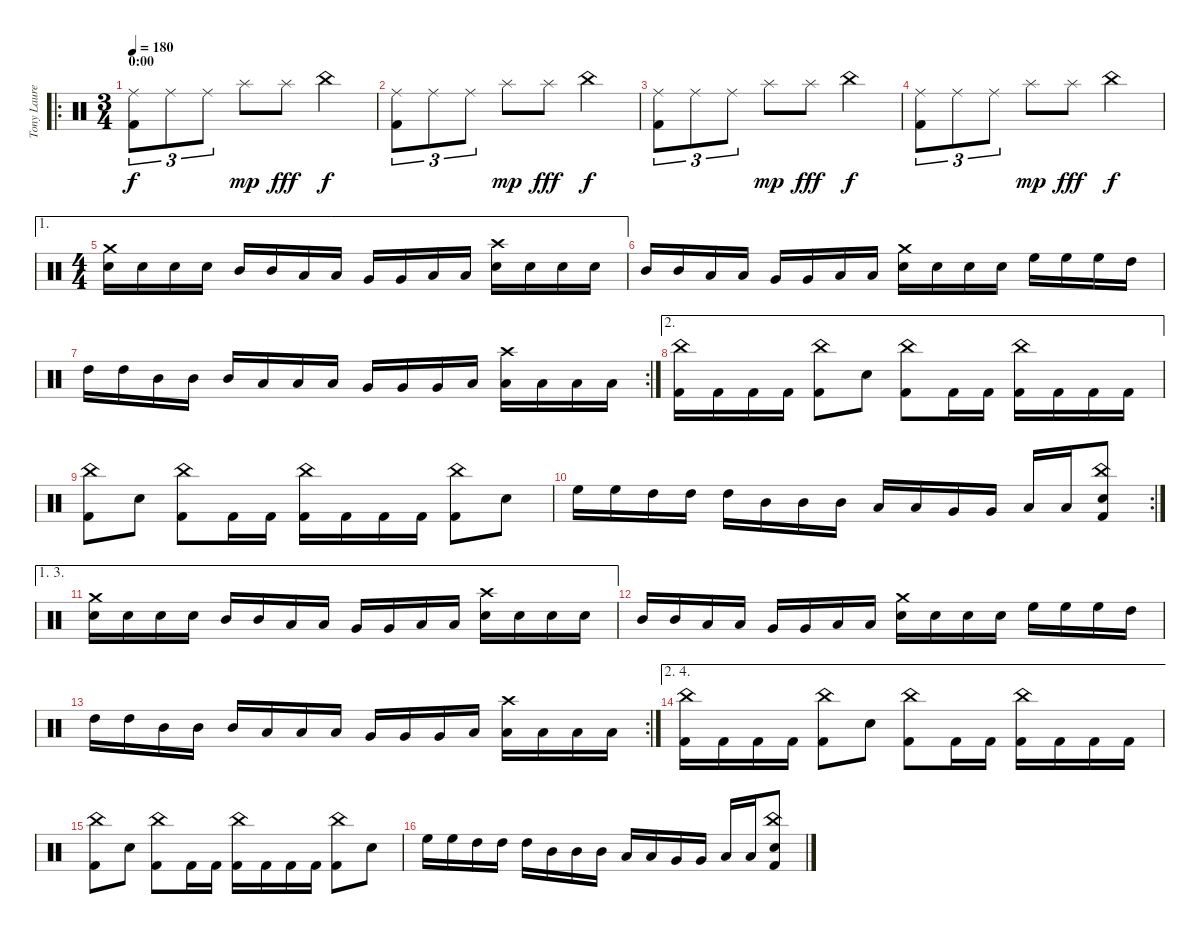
\track ("Tony Laureano" "Tony Laure") {instrument percussion}
\staff {score}
\articulation defaults
\ro
\ts (3 4)
\section ("" "0:00")
\tempo 180
\clef neutral
\ks c
("Ride (middle)" "Kick (hit) 2").8{tu (3 2) dy f} "Ride (middle)".8{tu (3 2)} "Ride (middle)".8{tu (3 2)} "Splash (hit)".8{dy mp} "Splash (hit)".8{dy fff} "China (hit)".4{dy f} |
("Ride (middle)" "Kick (hit) 2").8{tu (3 2)} "Ride (middle)".8{tu (3 2)} "Ride (middle)".8{tu (3 2)} "Splash (hit)".8{dy mp} "Splash (hit)".8{dy fff} "China (hit)".4{dy f} |
("Ride (middle)" "Kick (hit) 2").8{tu (3 2)} "Ride (middle)".8{tu (3 2)} "Ride (middle)".8{tu (3 2)} "Splash (hit)".8{dy mp} "Splash (hit)".8{dy fff} "China (hit)".4{dy f} |
("Ride (middle)" "Kick (hit) 2").8{tu (3 2)} "Ride (middle)".8{tu (3 2)} "Ride (middle)".8{tu (3 2)} "Splash (hit)".8{dy mp} "Splash (hit)".8{dy fff} "China (hit)".4{dy f} |
\ae 1
\ts (4 4)
("Crash medium (hit)" "Electric Snare (hit)").16 "Electric Snare (hit)".16 "Electric Snare (hit)".16 "Electric Snare (hit)".16 "Mid Tom (hit)".16 "Mid Tom (hit)".16 "Low Tom (hit)".16 "Low Tom (hit)".16 "Very Low Tom (hit)".16 "Very Low Tom (hit)".16 "Low Floor Tom (hit)".16 "Low Floor Tom (hit)".16 ("Crash high (hit)" "Electric Snare (hit)").16 "Electric Snare (hit)".16 "Electric Snare (hit)".16 "Electric Snare (hit)".16 |
"Mid Tom (hit)".16 "Mid Tom (hit)".16 "Low Tom (hit)".16 "Low Tom (hit)".16 "Very Low Tom (hit)".16 "Very Low Tom (hit)".16 "Low Floor Tom (hit)".16 "Low Floor Tom (hit)".16 ("Crash medium (hit)" "Electric Snare (hit)").16 "Electric Snare (hit)".16 "Electric Snare (hit)".16 "Electric Snare (hit)".16 "High Floor Tom (hit)".16 "High Floor Tom (hit)".16 "High Floor Tom (hit)".16 "High Tom (hit)".16 |
\rc 2 "High Tom (hit)".16 "High Tom (hit)".16 "Mid Tom (hit)".16 "Mid Tom (hit)".16 "Mid Tom (hit)".16 "Low Tom (hit)".16 "Low Tom (hit)".16 "Low Tom (hit)".16 "Very Low Tom (hit)".16 "Very Low Tom (hit)".16 "Very Low Tom (hit)".16 "Low Floor Tom (hit)".16
("Crash high (hit)" "Low Floor Tom (hit)").16 "Low Floor Tom (hit)".16 "Low Floor Tom (hit)".16 "Low Floor Tom (hit)".16 |
\ae 2
("China (hit)" "Kick (hit) 2").16 "Kick (hit) 2".16 "Kick (hit) 2".16 "Kick (hit) 2".16 ("China (hit)" "Kick (hit) 2").8 "Electric Snare (hit)".8 ("China (hit)" "Kick (hit) 2").8 "Kick (hit) 2".16 "Kick (hit) 2".16 ("China (hit)" "Kick (hit) 2").16 "Kick (hit) 2".16 "Kick (hit) 2".16 "Kick (hit) 2".16 |
("China (hit)" "Kick (hit) 2").8 "Electric Snare (hit)".8 ("China (hit)" "Kick (hit) 2").8 "Kick (hit) 2".16 "Kick (hit) 2".16 ("China (hit)" "Kick (hit) 2").16 "Kick (hit) 2".16 "Kick (hit) 2".16 "Kick (hit) 2".16 ("China (hit)" "Kick (hit) 2").8 "Electric Snare (hit)".8 |
\rc 2 "High Floor Tom (hit)".16 "High Floor Tom (hit)".16 "High Tom (hit)".16 "High Tom (hit)".16 "High Tom (hit)".16 "Mid Tom (hit)".16 "Mid Tom (hit)".16 "Mid Tom (hit)".16 "Low Tom (hit)".16 "Low Tom (hit)".16 "Very Low Tom (hit)".16 "Very Low Tom (hit)".16 "Low Floor Tom (hit)".16 "Low Floor Tom (hit)".16
("China (hit)" "Electric Snare (hit)" "Kick (hit) 2").8 |
\ae (1 3)
("Crash medium (hit)" "Electric Snare (hit)").16 "Electric Snare (hit)".16 "Electric Snare (hit)".16 "Electric Snare (hit)".16 "Mid Tom (hit)".16 "Mid Tom (hit)".16 "Low Tom (hit)".16 "Low Tom (hit)".16 "Very Low Tom (hit)".16 "Very Low Tom (hit)".16 "Low Floor Tom (hit)".16 "Low Floor Tom (hit)".16 ("Crash high (hit)" "Electric Snare (hit)").16 "Electric Snare (hit)".16 "Electric Snare (hit)".16 "Electric Snare (hit)".16 |
"Mid Tom (hit)".16 "Mid Tom (hit)".16 "Low Tom (hit)".16 "Low Tom (hit)".16 "Very Low Tom (hit)".16 "Very Low Tom (hit)".16 "Low Floor Tom (hit)".16 "Low Floor Tom (hit)".16 ("Crash medium (hit)" "Electric Snare (hit)").16 "Electric Snare (hit)".16 "Electric Snare (hit)".16 "Electric Snare (hit)".16 "High Floor Tom (hit)".16 "High Floor Tom (hit)".16 "High Floor Tom (hit)".16 "High Tom (hit)".16 |
\rc 2 "High Tom (hit)".16 "High Tom (hit)".16 "Mid Tom (hit)".16 "Mid Tom (hit)".16 "Mid Tom (hit)".16 "Low Tom (hit)".16 "Low Tom (hit)".16 "Low Tom (hit)".16 "Very Low Tom (hit)".16 "Very Low Tom (hit)".16 "Very Low Tom (hit)".16 "Low Floor Tom (hit)".16
("Crash high (hit)" "Low Floor Tom (hit)").16 "Low Floor Tom (hit)".16 "Low Floor Tom (hit)".16 "Low Floor Tom (hit)".16 |
\ae (2 4)
("China (hit)" "Kick (hit) 2").16 "Kick (hit) 2".16 "Kick (hit) 2".16 "Kick (hit) 2".16 ("China (hit)" "Kick (hit) 2").8 "Electric Snare (hit)".8 ("China (hit)" "Kick (hit) 2").8 "Kick (hit) 2".16 "Kick (hit) 2".16 ("China (hit)" "Kick (hit) 2").16 "Kick (hit) 2".16 "Kick (hit) 2".16 "Kick (hit) 2".16 |
("China (hit)" "Kick (hit) 2").8 "Electric Snare (hit)".8 ("China (hit)" "Kick (hit) 2").8 "Kick (hit) 2".16 "Kick (hit) 2".16 ("China (hit)" "Kick (hit) 2").16 "Kick (hit) 2".16 "Kick (hit) 2".16 "Kick (hit) 2".16 ("China (hit)" "Kick (hit) 2").8 "Electric Snare (hit)".8 |
"High Floor Tom (hit)".16 "High Floor Tom (hit)".16 "High Tom (hit)".16 "High Tom (hit)".16 "High Tom (hit)".16 "Mid Tom (hit)".16 "Mid Tom (hit)".16 "Mid Tom (hit)".16 "Low Tom (hit)".16 "Low Tom (hit)".16 "Very Low Tom (hit)".16 "Very Low Tom (hit)".16 "Low Floor Tom (hit)".16 "Low Floor Tom (hit)".16 ("China (hit)" "Electric Snare (hit)" "Kick (hit) 2").8
